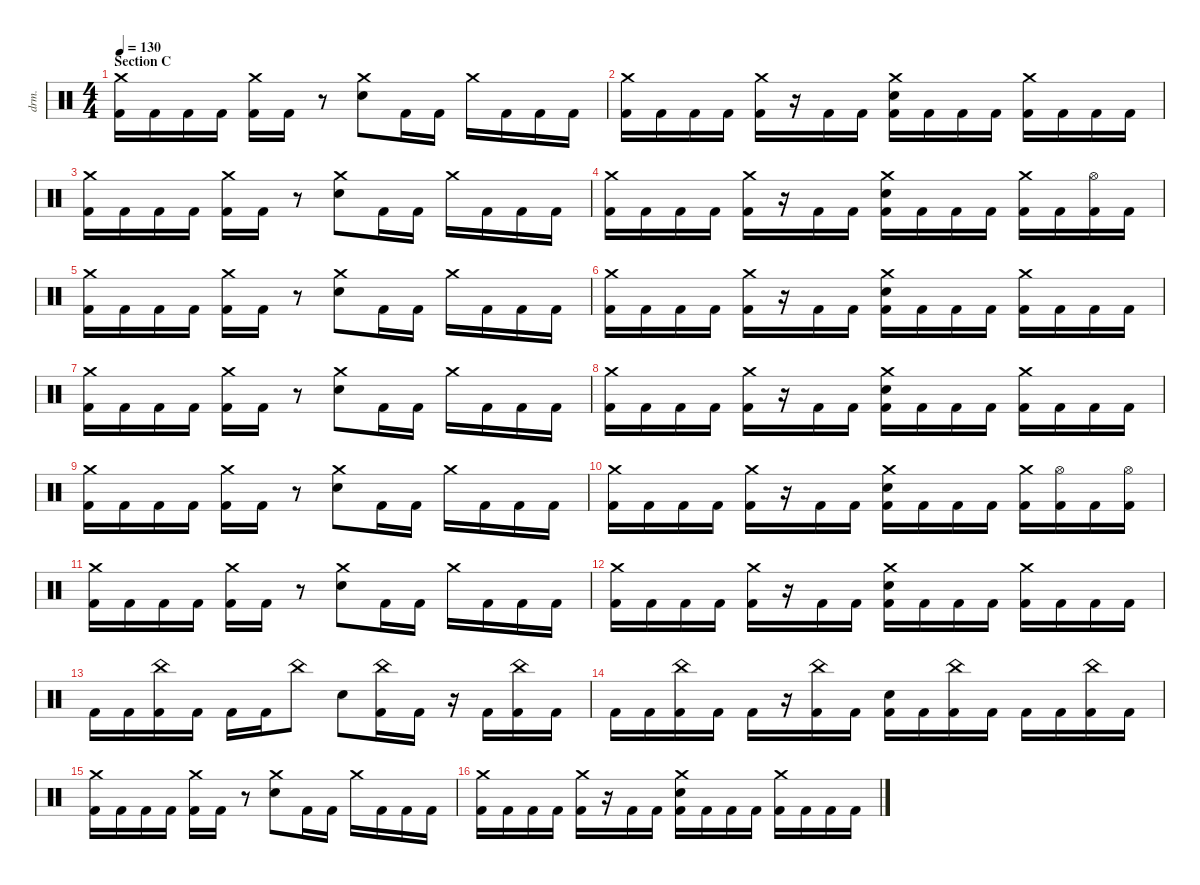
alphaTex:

\defaultSystemsLayout 4
\hideDynamics
\bracketExtendMode nobrackets
\otherSystemsTrackNameOrientation horizontal
\track ("Percussion" "drm.") {instrument percussion}
\staff {score}
\articulation defaults
\ts (4 4)
\beaming (8 2 2 2 2)
\section ("" "Section C")
\tempo 130
\clef neutral
\ks c
("Crash medium (hit)" "Kick (hit) 2").16{dy f beam Down} "Kick (hit) 2".16{beam Down} "Kick (hit) 2".16{beam Down} "Kick (hit) 2".16{beam Down} ("Crash medium (hit)" "Kick (hit) 2").16{beam Down} "Kick (hit) 2".16{beam Down} r.8{beam Down} ("Crash medium (hit)" "Snare (hit) 2").8{beam Down} "Kick (hit) 2".16{beam Down} "Kick (hit) 2".16{beam Down} "Crash medium (hit)".16{beam Down} "Kick (hit) 2".16{beam Down} "Kick (hit) 2".16{beam Down} "Kick (hit) 2".16{beam Down} |
("Crash medium (hit)" "Kick (hit) 2").16{beam Down} "Kick (hit) 2".16{beam Down} "Kick (hit) 2".16{beam Down} "Kick (hit) 2".16{beam Down} ("Crash medium (hit)" "Kick (hit) 2").16{beam Down} r.16{beam Down} "Kick (hit) 2".16{beam Down} "Kick (hit) 2".16{beam Down} ("Crash medium (hit)" "Snare (hit) 2" "Kick (hit) 2").16{beam Down} "Kick (hit) 2".16{beam Down} "Kick (hit) 2".16{beam Down} "Kick (hit) 2".16{beam Down} ("Crash medium (hit)" "Kick (hit) 2").16{beam Down} "Kick (hit) 2".16{beam Down} "Kick (hit) 2".16{beam Down} "Kick (hit) 2".16{beam Down} |
("Crash medium (hit)" "Kick (hit) 2").16{beam Down} "Kick (hit) 2".16{beam Down} "Kick (hit) 2".16{beam Down} "Kick (hit) 2".16{beam Down} ("Crash medium (hit)" "Kick (hit) 2").16{beam Down} "Kick (hit) 2".16{beam Down} r.8{beam Down} ("Crash medium (hit)" "Snare (hit) 2").8{beam Down} "Kick (hit) 2".16{beam Down} "Kick (hit) 2".16{beam Down} "Crash medium (hit)".16{beam Down} "Kick (hit) 2".16{beam Down} "Kick (hit) 2".16{beam Down} "Kick (hit) 2".16{beam Down} |
("Crash medium (hit)" "Kick (hit) 2").16{beam Down} "Kick (hit) 2".16{beam Down} "Kick (hit) 2".16{beam Down} "Kick (hit) 2".16{beam Down} ("Crash medium (hit)" "Kick (hit) 2").16{beam Down} r.16{beam Down} "Kick (hit) 2".16{beam Down} "Kick (hit) 2".16{beam Down} ("Crash medium (hit)" "Snare (hit) 2" "Kick (hit) 2").16{beam Down} "Kick (hit) 2".16{beam Down} "Kick (hit) 2".16{beam Down} "Kick (hit) 2".16{beam Down} ("Crash medium (hit)" "Kick (hit) 2").16{beam Down} "Kick (hit) 2".16{beam Down} ("Hi-Hat (open)" "Kick (hit) 2").16{beam Down} "Kick (hit) 2".16{beam Down} |
("Crash medium (hit)" "Kick (hit) 2").16{beam Down} "Kick (hit) 2".16{beam Down} "Kick (hit) 2".16{beam Down} "Kick (hit) 2".16{beam Down} ("Crash medium (hit)" "Kick (hit) 2").16{beam Down} "Kick (hit) 2".16{beam Down} r.8{beam Down} ("Crash medium (hit)" "Snare (hit) 2").8{beam Down} "Kick (hit) 2".16{beam Down} "Kick (hit) 2".16{beam Down} "Crash medium (hit)".16{beam Down} "Kick (hit) 2".16{beam Down} "Kick (hit) 2".16{beam Down} "Kick (hit) 2".16{beam Down} |
("Crash medium (hit)" "Kick (hit) 2").16{beam Down} "Kick (hit) 2".16{beam Down} "Kick (hit) 2".16{beam Down} "Kick (hit) 2".16{beam Down} ("Crash medium (hit)" "Kick (hit) 2").16{beam Down} r.16{beam Down} "Kick (hit) 2".16{beam Down} "Kick (hit) 2".16{beam Down} ("Crash medium (hit)" "Snare (hit) 2" "Kick (hit) 2").16{beam Down} "Kick (hit) 2".16{beam Down} "Kick (hit) 2".16{beam Down} "Kick (hit) 2".16{beam Down} ("Crash medium (hit)" "Kick (hit) 2").16{beam Down} "Kick (hit) 2".16{beam Down} "Kick (hit) 2".16{beam Down} "Kick (hit) 2".16{beam Down} |
("Crash medium (hit)" "Kick (hit) 2").16{beam Down} "Kick (hit) 2".16{beam Down} "Kick (hit) 2".16{beam Down} "Kick (hit) 2".16{beam Down} ("Crash medium (hit)" "Kick (hit) 2").16{beam Down} "Kick (hit) 2".16{beam Down} r.8{beam Down} ("Crash medium (hit)" "Snare (hit) 2").8{beam Down} "Kick (hit) 2".16{beam Down} "Kick (hit) 2".16{beam Down} "Crash medium (hit)".16{beam Down} "Kick (hit) 2".16{beam Down} "Kick (hit) 2".16{beam Down} "Kick (hit) 2".16{beam Down} |
("Crash medium (hit)" "Kick (hit) 2").16{beam Down} "Kick (hit) 2".16{beam Down} "Kick (hit) 2".16{beam Down} "Kick (hit) 2".16{beam Down} ("Crash medium (hit)" "Kick (hit) 2").16{beam Down} r.16{beam Down} "Kick (hit) 2".16{beam Down} "Kick (hit) 2".16{beam Down} ("Crash medium (hit)" "Snare (hit) 2" "Kick (hit) 2").16{beam Down} "Kick (hit) 2".16{beam Down} "Kick (hit) 2".16{beam Down} "Kick (hit) 2".16{beam Down} ("Crash medium (hit)" "Kick (hit) 2").16{beam Down} "Kick (hit) 2".16{beam Down} "Kick (hit) 2".16{beam Down} "Kick (hit) 2".16{beam Down} |
("Crash medium (hit)" "Kick (hit) 2").16{beam Down} "Kick (hit) 2".16{beam Down} "Kick (hit) 2".16{beam Down} "Kick (hit) 2".16{beam Down} ("Crash medium (hit)" "Kick (hit) 2").16{beam Down} "Kick (hit) 2".16{beam Down} r.8{beam Down} ("Crash medium (hit)" "Snare (hit) 2").8{beam Down} "Kick (hit) 2".16{beam Down} "Kick (hit) 2".16{beam Down} "Crash medium (hit)".16{beam Down} "Kick (hit) 2".16{beam Down} "Kick (hit) 2".16{beam Down} "Kick (hit) 2".16{beam Down} |
("Crash medium (hit)" "Kick (hit) 2").16{beam Down} "Kick (hit) 2".16{beam Down} "Kick (hit) 2".16{beam Down} "Kick (hit) 2".16{beam Down} ("Crash medium (hit)" "Kick (hit) 2").16{beam Down} r.16{beam Down} "Kick (hit) 2".16{beam Down} "Kick (hit) 2".16{beam Down} ("Crash medium (hit)" "Snare (hit) 2" "Kick (hit) 2").16{beam Down} "Kick (hit) 2".16{beam Down} "Kick (hit) 2".16{beam Down} "Kick (hit) 2".16{beam Down} ("Crash medium (hit)" "Kick (hit) 2").16{beam Down} ("Hi-Hat (open)" "Kick (hit) 2").16{beam Down} "Kick (hit) 2".16{beam Down} ("Hi-Hat (open)" "Kick (hit) 2").16{beam Down} |
("Crash medium (hit)" "Kick (hit) 2").16{beam Down} "Kick (hit) 2".16{beam Down} "Kick (hit) 2".16{beam Down} "Kick (hit) 2".16{beam Down} ("Crash medium (hit)" "Kick (hit) 2").16{beam Down} "Kick (hit) 2".16{beam Down} r.8{beam Down} ("Crash medium (hit)" "Snare (hit) 2").8{beam Down} "Kick (hit) 2".16{beam Down} "Kick (hit) 2".16{beam Down} "Crash medium (hit)".16{beam Down} "Kick (hit) 2".16{beam Down} "Kick (hit) 2".16{beam Down} "Kick (hit) 2".16{beam Down} |
("Crash medium (hit)" "Kick (hit) 2").16{beam Down} "Kick (hit) 2".16{beam Down} "Kick (hit) 2".16{beam Down} "Kick (hit) 2".16{beam Down} ("Crash medium (hit)" "Kick (hit) 2").16{beam Down} r.16{beam Down} "Kick (hit) 2".16{beam Down} "Kick (hit) 2".16{beam Down} ("Crash medium (hit)" "Snare (hit) 2" "Kick (hit) 2").16{beam Down} "Kick (hit) 2".16{beam Down} "Kick (hit) 2".16{beam Down} "Kick (hit) 2".16{beam Down} ("Crash medium (hit)" "Kick (hit) 2").16{beam Down} "Kick (hit) 2".16{beam Down} "Kick (hit) 2".16{beam Down} "Kick (hit) 2".16{beam Down} |
"Kick (hit) 2".16{beam Down} "Kick (hit) 2".16{beam Down} ("China (hit)" "Kick (hit) 2").16{beam Down} "Kick (hit) 2".16{beam Down} "Kick (hit) 2".16{beam Down} "Kick (hit) 2".16{beam Down} "China (hit)".8{beam Down} "Snare (hit) 2".8{beam Down} ("China (hit)" "Kick (hit) 2").16{beam Down} "Kick (hit) 2".16{beam Down} r.16{beam Down} "Kick (hit) 2".16{beam Down} ("China (hit)" "Kick (hit) 2").16{beam Down} "Kick (hit) 2".16{beam Down} |
"Kick (hit) 2".16{beam Down} "Kick (hit) 2".16{beam Down} ("China (hit)" "Kick (hit) 2").16{beam Down} "Kick (hit) 2".16{beam Down} "Kick (hit) 2".16{beam Down} r.16{beam Down} ("China (hit)" "Kick (hit) 2").16{beam Down} "Kick (hit) 2".16{beam Down} ("Snare (hit) 2" "Kick (hit) 2").16{beam Down} "Kick (hit) 2".16{beam Down} ("China (hit)" "Kick (hit) 2").16{beam Down} "Kick (hit) 2".16{beam Down} "Kick (hit) 2".16{beam Down} "Kick (hit) 2".16{beam Down} ("China (hit)" "Kick (hit) 2").16{beam Down} "Kick (hit) 2".16{beam Down} |
("Crash medium (hit)" "Kick (hit) 2").16{beam Down} "Kick (hit) 2".16{beam Down} "Kick (hit) 2".16{beam Down} "Kick (hit) 2".16{beam Down} ("Crash medium (hit)" "Kick (hit) 2").16{beam Down} "Kick (hit) 2".16{beam Down} r.8{beam Down} ("Crash medium (hit)" "Snare (hit) 2").8{beam Down} "Kick (hit) 2".16{beam Down} "Kick (hit) 2".16{beam Down} "Crash medium (hit)".16{beam Down} "Kick (hit) 2".16{beam Down} "Kick (hit) 2".16{beam Down} "Kick (hit) 2".16{beam Down} |
("Crash medium (hit)" "Kick (hit) 2").16{beam Down} "Kick (hit) 2".16{beam Down} "Kick (hit) 2".16{beam Down} "Kick (hit) 2".16{beam Down} ("Crash medium (hit)" "Kick (hit) 2").16{beam Down} r.16{beam Down} "Kick (hit) 2".16{beam Down} "Kick (hit) 2".16{beam Down} ("Crash medium (hit)" "Snare (hit) 2" "Kick (hit) 2").16{beam Down} "Kick (hit) 2".16{beam Down} "Kick (hit) 2".16{beam Down} "Kick (hit) 2".16{beam Down} ("Crash medium (hit)" "Kick (hit) 2").16{beam Down} "Kick (hit) 2".16{beam Down} "Kick (hit) 2".16{beam Down} "Kick (hit) 2".16{beam Down}
